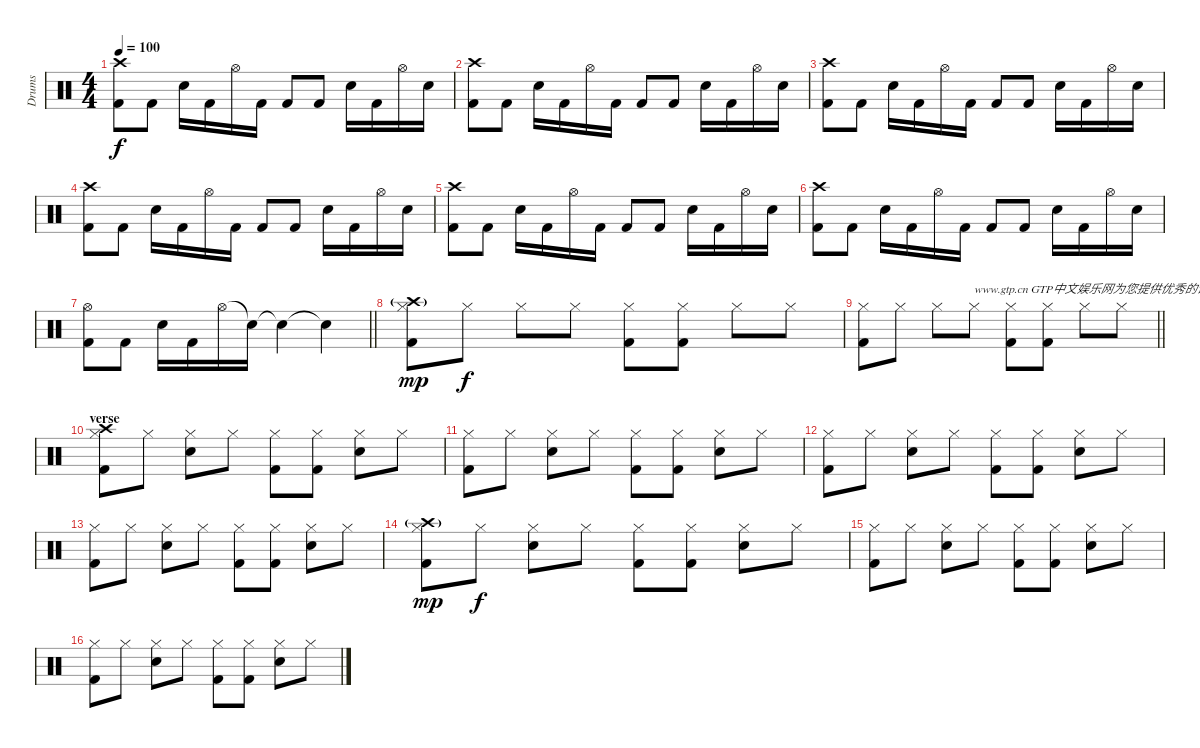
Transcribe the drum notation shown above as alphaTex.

\track ("Drums" "Drums") {instrument percussion}
\staff {score}
\articulation defaults
\ts (4 4)
\tempo 100
\clef neutral
\ks c
("Crash high (hit)" "Kick (hit) 2").8{dy f} "Kick (hit) 2".8 "Snare (hit) 2".16 "Kick (hit) 2".16 "Hi-Hat (open)".16 "Kick (hit) 2".16 "Kick (hit) 2".8 "Kick (hit) 2".8 "Snare (hit) 2".16 "Kick (hit) 2".16 "Hi-Hat (open)".16 "Snare (hit) 2".16 |
("Crash high (hit)" "Kick (hit) 2").8 "Kick (hit) 2".8 "Snare (hit) 2".16 "Kick (hit) 2".16 "Hi-Hat (open)".16 "Kick (hit) 2".16 "Kick (hit) 2".8 "Kick (hit) 2".8 "Snare (hit) 2".16 "Kick (hit) 2".16 "Hi-Hat (open)".16 "Snare (hit) 2".16 |
("Crash high (hit)" "Kick (hit) 2").8 "Kick (hit) 2".8 "Snare (hit) 2".16 "Kick (hit) 2".16 "Hi-Hat (open)".16 "Kick (hit) 2".16 "Kick (hit) 2".8 "Kick (hit) 2".8 "Snare (hit) 2".16 "Kick (hit) 2".16 "Hi-Hat (open)".16 "Snare (hit) 2".16 |
("Crash high (hit)" "Kick (hit) 2").8 "Kick (hit) 2".8 "Snare (hit) 2".16 "Kick (hit) 2".16 "Hi-Hat (open)".16 "Kick (hit) 2".16 "Kick (hit) 2".8 "Kick (hit) 2".8 "Snare (hit) 2".16 "Kick (hit) 2".16 "Hi-Hat (open)".16 "Snare (hit) 2".16 |
("Crash high (hit)" "Kick (hit) 2").8 "Kick (hit) 2".8 "Snare (hit) 2".16 "Kick (hit) 2".16 "Hi-Hat (open)".16 "Kick (hit) 2".16 "Kick (hit) 2".8 "Kick (hit) 2".8 "Snare (hit) 2".16 "Kick (hit) 2".16 "Hi-Hat (open)".16 "Snare (hit) 2".16 |
("Crash high (hit)" "Kick (hit) 2").8 "Kick (hit) 2".8 "Snare (hit) 2".16 "Kick (hit) 2".16 "Hi-Hat (open)".16 "Kick (hit) 2".16 "Kick (hit) 2".8 "Kick (hit) 2".8 "Snare (hit) 2".16 "Kick (hit) 2".16 "Hi-Hat (open)".16 "Snare (hit) 2".16 |
\barLineRight lightlight
("Hi-Hat (open)" "Kick (hit) 2").8 "Kick (hit) 2".8 "Snare (hit) 2".16 "Kick (hit) 2".16 "Hi-Hat (open)".16 "Snare (hit)"{t}.16 "Snare (hit)"{t}.4 "Snare (hit)"{t}.4 |
("Crash high (hit)"{g} "Hi-Hat (closed)" "Kick (hit) 2").8{dy mp} "Hi-Hat (closed)".8{dy f} "Hi-Hat (closed)".8 "Hi-Hat (closed)".8 ("Hi-Hat (closed)" "Kick (hit) 2").8 ("Hi-Hat (closed)" "Kick (hit) 2").8 "Hi-Hat (closed)".8 "Hi-Hat (closed)".8 |
\barLineRight lightlight
("Hi-Hat (closed)" "Kick (hit) 2").8 "Hi-Hat (closed)".8 "Hi-Hat (closed)".8 "Hi-Hat (closed)".8{txt "www.gtp.cn GTP中文娱乐网为您提供优秀的谱子"} ("Hi-Hat (closed)" "Kick (hit) 2").8 ("Hi-Hat (closed)" "Kick (hit) 2").8 "Hi-Hat (closed)".8 "Hi-Hat (closed)".8 |
\section ("" "verse")
("Crash high (hit)" "Hi-Hat (closed)" "Kick (hit) 2").8 "Hi-Hat (closed)".8 ("Hi-Hat (closed)" "Snare (hit) 2").8 "Hi-Hat (closed)".8 ("Hi-Hat (closed)" "Kick (hit) 2").8 ("Hi-Hat (closed)" "Kick (hit) 2").8 ("Hi-Hat (closed)" "Snare (hit) 2").8 "Hi-Hat (closed)".8 |
("Hi-Hat (closed)" "Kick (hit) 2").8 "Hi-Hat (closed)".8 ("Hi-Hat (closed)" "Snare (hit) 2").8 "Hi-Hat (closed)".8 ("Hi-Hat (closed)" "Kick (hit) 2").8 ("Hi-Hat (closed)" "Kick (hit) 2").8 ("Hi-Hat (closed)" "Snare (hit) 2").8 "Hi-Hat (closed)".8 |
("Hi-Hat (closed)" "Kick (hit) 2").8 "Hi-Hat (closed)".8 ("Hi-Hat (closed)" "Snare (hit) 2").8 "Hi-Hat (closed)".8 ("Hi-Hat (closed)" "Kick (hit) 2").8 ("Hi-Hat (closed)" "Kick (hit) 2").8 ("Hi-Hat (closed)" "Snare (hit) 2").8 "Hi-Hat (closed)".8 |
("Hi-Hat (closed)" "Kick (hit) 2").8 "Hi-Hat (closed)".8 ("Hi-Hat (closed)" "Snare (hit) 2").8 "Hi-Hat (closed)".8 ("Hi-Hat (closed)" "Kick (hit) 2").8 ("Hi-Hat (closed)" "Kick (hit) 2").8 ("Hi-Hat (closed)" "Snare (hit) 2").8 "Hi-Hat (closed)".8 |
("Crash high (hit)"{g} "Hi-Hat (closed)" "Kick (hit) 2").8{dy mp} "Hi-Hat (closed)".8{dy f} ("Hi-Hat (closed)" "Snare (hit) 2").8 "Hi-Hat (closed)".8 ("Hi-Hat (closed)" "Kick (hit) 2").8 ("Hi-Hat (closed)" "Kick (hit) 2").8 ("Hi-Hat (closed)" "Snare (hit) 2").8 "Hi-Hat (closed)".8 |
("Hi-Hat (closed)" "Kick (hit) 2").8 "Hi-Hat (closed)".8 ("Hi-Hat (closed)" "Snare (hit) 2").8 "Hi-Hat (closed)".8 ("Hi-Hat (closed)" "Kick (hit) 2").8 ("Hi-Hat (closed)" "Kick (hit) 2").8 ("Hi-Hat (closed)" "Snare (hit) 2").8 "Hi-Hat (closed)".8 |
("Hi-Hat (closed)" "Kick (hit) 2").8 "Hi-Hat (closed)".8 ("Hi-Hat (closed)" "Snare (hit) 2").8 "Hi-Hat (closed)".8 ("Hi-Hat (closed)" "Kick (hit) 2").8 ("Hi-Hat (closed)" "Kick (hit) 2").8 ("Hi-Hat (closed)" "Snare (hit) 2").8 "Hi-Hat (closed)".8
